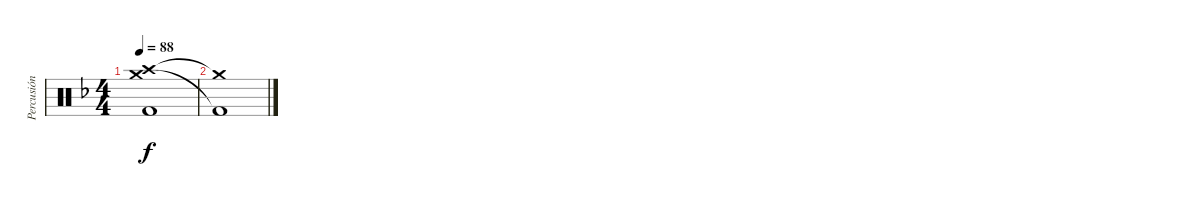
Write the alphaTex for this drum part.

\track ("Percusión" "Percusión") {instrument percussion}
\staff {score}
\articulation defaults
\ts (4 4)
\tempo 88
\clef neutral
\ks f
("Crash high (hit)" "Crash medium (hit)" "Kick (hit) 2").1{dy f} |
("Crash medium (hit)"{t} "Kick (hit) 2"{t}).1
